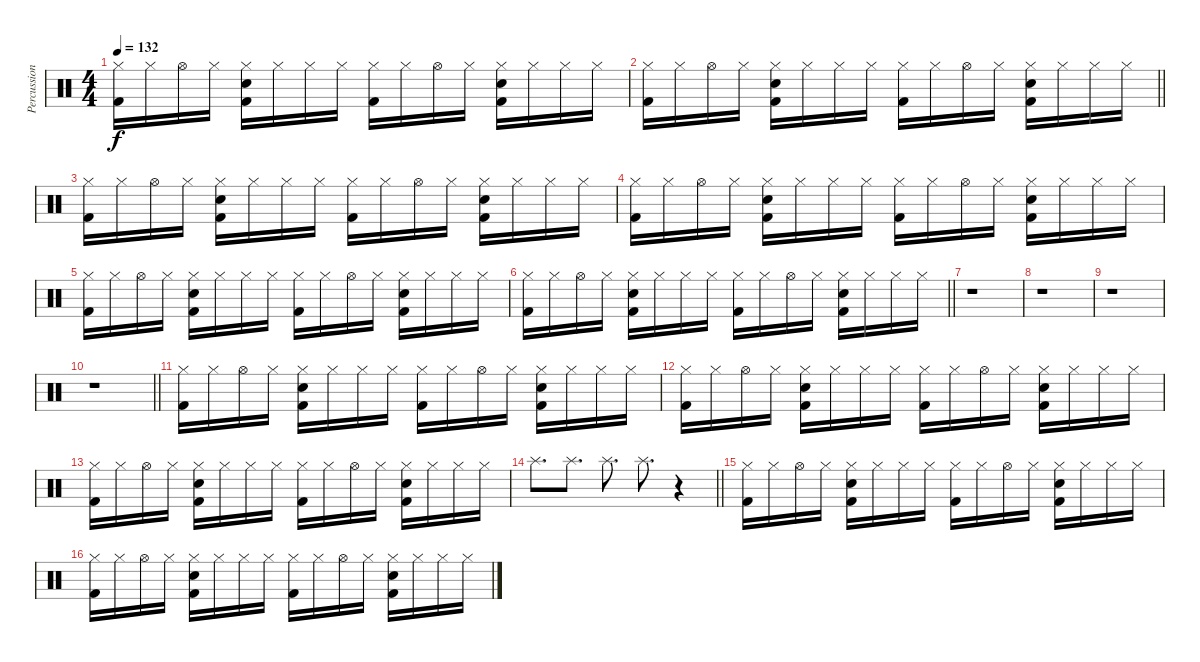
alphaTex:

\track ("Percussion I" "Percussion") {instrument percussion}
\staff {score}
\articulation defaults
\ts (4 4)
\tempo 132
\clef neutral
\ks c
("Hi-Hat (closed)" "Kick (hit) 2").16{dy f} "Hi-Hat (closed)".16 "Hi-Hat (open)".16 "Hi-Hat (closed)".16 ("Hi-Hat (closed)" "Hand Clap (hit)" "Kick (hit) 2").16 "Hi-Hat (closed)".16 "Hi-Hat (closed)".16 "Hi-Hat (closed)".16 ("Hi-Hat (closed)" "Kick (hit) 2").16 "Hi-Hat (closed)".16 "Hi-Hat (open)".16 "Hi-Hat (closed)".16 ("Hi-Hat (closed)" "Hand Clap (hit)" "Kick (hit) 2").16 "Hi-Hat (closed)".16 "Hi-Hat (closed)".16 "Hi-Hat (closed)".16 |
\barLineRight lightlight
("Hi-Hat (closed)" "Kick (hit) 2").16 "Hi-Hat (closed)".16 "Hi-Hat (open)".16 "Hi-Hat (closed)".16 ("Hi-Hat (closed)" "Hand Clap (hit)" "Kick (hit) 2").16 "Hi-Hat (closed)".16 "Hi-Hat (closed)".16 "Hi-Hat (closed)".16 ("Hi-Hat (closed)" "Kick (hit) 2").16 "Hi-Hat (closed)".16 "Hi-Hat (open)".16 "Hi-Hat (closed)".16 ("Hi-Hat (closed)" "Hand Clap (hit)" "Kick (hit) 2").16 "Hi-Hat (closed)".16 "Hi-Hat (closed)".16 "Hi-Hat (closed)".16 |
("Hi-Hat (closed)" "Kick (hit) 2").16 "Hi-Hat (closed)".16 "Hi-Hat (open)".16 "Hi-Hat (closed)".16 ("Hi-Hat (closed)" "Hand Clap (hit)" "Kick (hit) 2").16 "Hi-Hat (closed)".16 "Hi-Hat (closed)".16 "Hi-Hat (closed)".16 ("Hi-Hat (closed)" "Kick (hit) 2").16 "Hi-Hat (closed)".16 "Hi-Hat (open)".16 "Hi-Hat (closed)".16 ("Hi-Hat (closed)" "Hand Clap (hit)" "Kick (hit) 2").16 "Hi-Hat (closed)".16 "Hi-Hat (closed)".16 "Hi-Hat (closed)".16 |
("Hi-Hat (closed)" "Kick (hit) 2").16 "Hi-Hat (closed)".16 "Hi-Hat (open)".16 "Hi-Hat (closed)".16 ("Hi-Hat (closed)" "Hand Clap (hit)" "Kick (hit) 2").16 "Hi-Hat (closed)".16 "Hi-Hat (closed)".16 "Hi-Hat (closed)".16 ("Hi-Hat (closed)" "Kick (hit) 2").16 "Hi-Hat (closed)".16 "Hi-Hat (open)".16 "Hi-Hat (closed)".16 ("Hi-Hat (closed)" "Hand Clap (hit)" "Kick (hit) 2").16 "Hi-Hat (closed)".16 "Hi-Hat (closed)".16 "Hi-Hat (closed)".16 |
("Hi-Hat (closed)" "Kick (hit) 2").16 "Hi-Hat (closed)".16 "Hi-Hat (open)".16 "Hi-Hat (closed)".16 ("Hi-Hat (closed)" "Hand Clap (hit)" "Kick (hit) 2").16 "Hi-Hat (closed)".16 "Hi-Hat (closed)".16 "Hi-Hat (closed)".16 ("Hi-Hat (closed)" "Kick (hit) 2").16 "Hi-Hat (closed)".16 "Hi-Hat (open)".16 "Hi-Hat (closed)".16 ("Hi-Hat (closed)" "Hand Clap (hit)" "Kick (hit) 2").16 "Hi-Hat (closed)".16 "Hi-Hat (closed)".16 "Hi-Hat (closed)".16 |
\barLineRight lightlight
("Hi-Hat (closed)" "Kick (hit) 2").16 "Hi-Hat (closed)".16 "Hi-Hat (open)".16 "Hi-Hat (closed)".16 ("Hi-Hat (closed)" "Hand Clap (hit)" "Kick (hit) 2").16 "Hi-Hat (closed)".16 "Hi-Hat (closed)".16 "Hi-Hat (closed)".16 ("Hi-Hat (closed)" "Kick (hit) 2").16 "Hi-Hat (closed)".16 "Hi-Hat (open)".16 "Hi-Hat (closed)".16 ("Hi-Hat (closed)" "Hand Clap (hit)" "Kick (hit) 2").16 "Hi-Hat (closed)".16 "Hi-Hat (closed)".16 "Hi-Hat (closed)".16 |
\section ("" "")
r.1 |
r.1 |
r.1 |
\barLineRight lightlight
r.1 |
\section ("" "")
("Hi-Hat (closed)" "Kick (hit) 2").16 "Hi-Hat (closed)".16 "Hi-Hat (open)".16 "Hi-Hat (closed)".16 ("Hi-Hat (closed)" "Hand Clap (hit)" "Kick (hit) 2").16 "Hi-Hat (closed)".16 "Hi-Hat (closed)".16 "Hi-Hat (closed)".16 ("Hi-Hat (closed)" "Kick (hit) 2").16 "Hi-Hat (closed)".16 "Hi-Hat (open)".16 "Hi-Hat (closed)".16 ("Hi-Hat (closed)" "Hand Clap (hit)" "Kick (hit) 2").16 "Hi-Hat (closed)".16 "Hi-Hat (closed)".16 "Hi-Hat (closed)".16 |
("Hi-Hat (closed)" "Kick (hit) 2").16 "Hi-Hat (closed)".16 "Hi-Hat (open)".16 "Hi-Hat (closed)".16 ("Hi-Hat (closed)" "Hand Clap (hit)" "Kick (hit) 2").16 "Hi-Hat (closed)".16 "Hi-Hat (closed)".16 "Hi-Hat (closed)".16 ("Hi-Hat (closed)" "Kick (hit) 2").16 "Hi-Hat (closed)".16 "Hi-Hat (open)".16 "Hi-Hat (closed)".16 ("Hi-Hat (closed)" "Hand Clap (hit)" "Kick (hit) 2").16 "Hi-Hat (closed)".16 "Hi-Hat (closed)".16 "Hi-Hat (closed)".16 |
("Hi-Hat (closed)" "Kick (hit) 2").16 "Hi-Hat (closed)".16 "Hi-Hat (open)".16 "Hi-Hat (closed)".16 ("Hi-Hat (closed)" "Hand Clap (hit)" "Kick (hit) 2").16 "Hi-Hat (closed)".16 "Hi-Hat (closed)".16 "Hi-Hat (closed)".16 ("Hi-Hat (closed)" "Kick (hit) 2").16 "Hi-Hat (closed)".16 "Hi-Hat (open)".16 "Hi-Hat (closed)".16 ("Hi-Hat (closed)" "Hand Clap (hit)" "Kick (hit) 2").16 "Hi-Hat (closed)".16 "Hi-Hat (closed)".16 "Hi-Hat (closed)".16 |
\barLineRight lightlight "Splash (hit)".8{d} "Splash (hit)".8{d} "Splash (hit)".8{d} "Splash (hit)".8{d}
r.4 |
\section ("" "")
("Hi-Hat (closed)" "Kick (hit) 2").16 "Hi-Hat (closed)".16 "Hi-Hat (open)".16 "Hi-Hat (closed)".16 ("Hi-Hat (closed)" "Hand Clap (hit)" "Kick (hit) 2").16 "Hi-Hat (closed)".16 "Hi-Hat (closed)".16 "Hi-Hat (closed)".16 ("Hi-Hat (closed)" "Kick (hit) 2").16 "Hi-Hat (closed)".16 "Hi-Hat (open)".16 "Hi-Hat (closed)".16 ("Hi-Hat (closed)" "Hand Clap (hit)" "Kick (hit) 2").16 "Hi-Hat (closed)".16 "Hi-Hat (closed)".16 "Hi-Hat (closed)".16 |
("Hi-Hat (closed)" "Kick (hit) 2").16 "Hi-Hat (closed)".16 "Hi-Hat (open)".16 "Hi-Hat (closed)".16 ("Hi-Hat (closed)" "Hand Clap (hit)" "Kick (hit) 2").16 "Hi-Hat (closed)".16 "Hi-Hat (closed)".16 "Hi-Hat (closed)".16 ("Hi-Hat (closed)" "Kick (hit) 2").16 "Hi-Hat (closed)".16 "Hi-Hat (open)".16 "Hi-Hat (closed)".16 ("Hi-Hat (closed)" "Hand Clap (hit)" "Kick (hit) 2").16 "Hi-Hat (closed)".16 "Hi-Hat (closed)".16 "Hi-Hat (closed)".16
